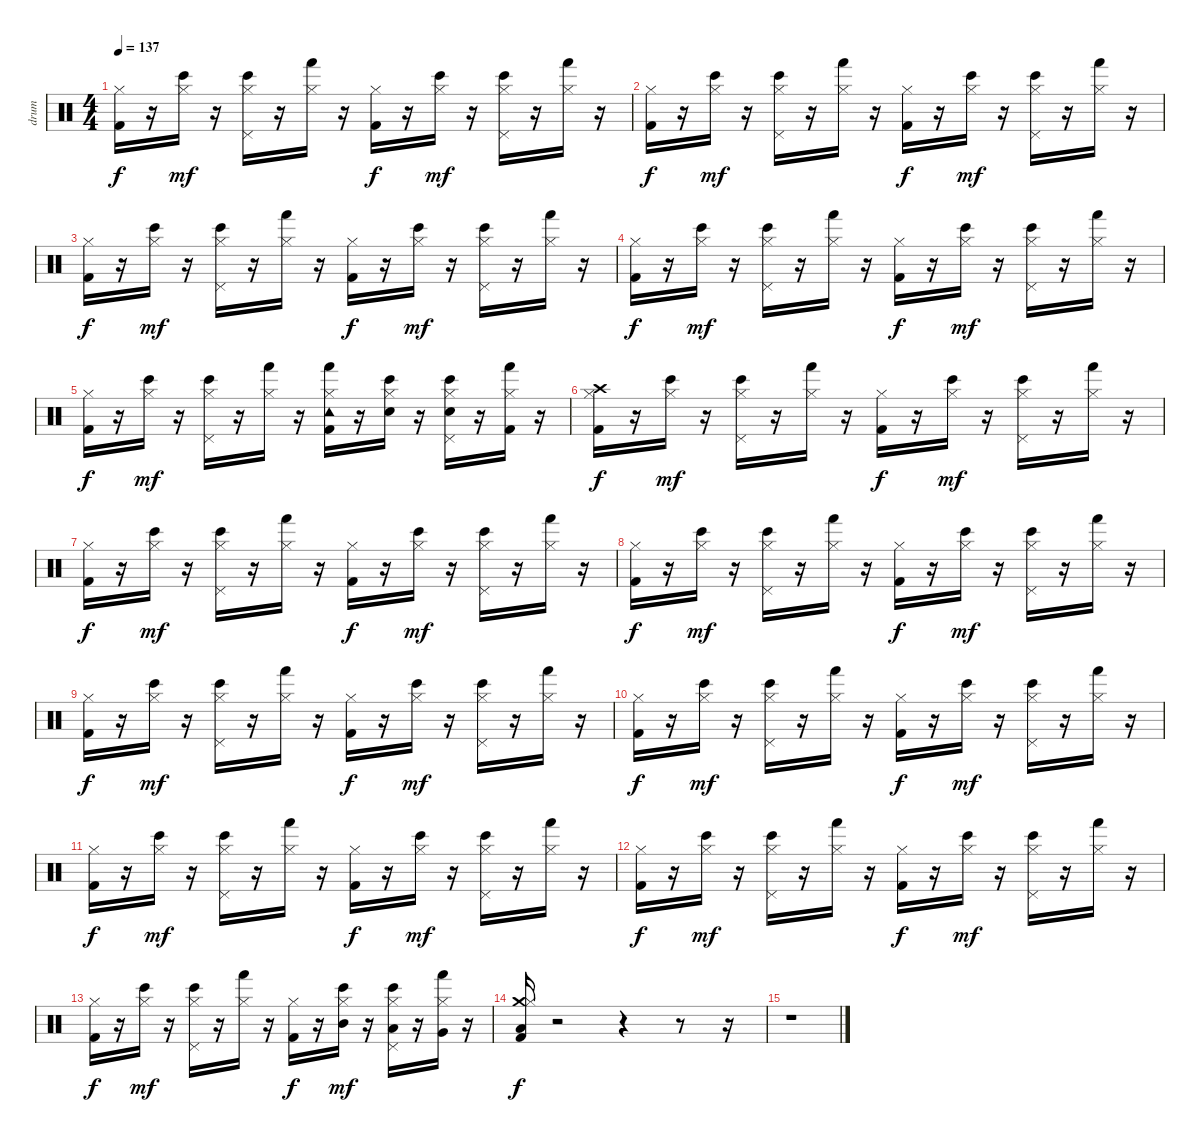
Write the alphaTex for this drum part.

\track ("drum" "drum") {instrument percussion}
\staff {score}
\articulation defaults
\ts (4 4)
\tempo 137
\clef neutral
\ks c
("Kick (hit) 2" "Hi-Hat (closed)").16{dy f} r.16 ("Hi-Hat (closed)" "Bongo High (hit)").16{dy mf} r.16 ("Hi-Hat (closed)" "Bongo High (hit)" "Pedal Hi-Hat (hit)").16 r.16 ("Hi-Hat (closed)" "Hand (hit)").16 r.16 ("Hi-Hat (closed)" "Kick (hit) 2").16{dy f} r.16 ("Bongo High (hit)" "Hi-Hat (closed)").16{dy mf} r.16 ("Bongo High (hit)" "Hi-Hat (closed)" "Pedal Hi-Hat (hit)").16 r.16 ("Hand (hit)" "Hi-Hat (closed)").16 r.16 |
("Kick (hit) 2" "Hi-Hat (closed)").16{dy f} r.16 ("Hi-Hat (closed)" "Bongo High (hit)").16{dy mf} r.16 ("Bongo High (hit)" "Hi-Hat (closed)" "Pedal Hi-Hat (hit)").16 r.16 ("Hi-Hat (closed)" "Hand (hit)").16 r.16 ("Kick (hit) 2" "Hi-Hat (closed)").16{dy f} r.16 ("Hi-Hat (closed)" "Bongo High (hit)").16{dy mf} r.16 ("Bongo High (hit)" "Hi-Hat (closed)" "Pedal Hi-Hat (hit)").16 r.16 ("Hand (hit)" "Hi-Hat (closed)").16 r.16 |
("Hi-Hat (closed)" "Kick (hit) 2").16{dy f} r.16 ("Hi-Hat (closed)" "Bongo High (hit)").16{dy mf} r.16 ("Bongo High (hit)" "Hi-Hat (closed)" "Pedal Hi-Hat (hit)").16 r.16 ("Hand (hit)" "Hi-Hat (closed)").16 r.16 ("Hi-Hat (closed)" "Kick (hit) 2").16{dy f} r.16 ("Hi-Hat (closed)" "Bongo High (hit)").16{dy mf} r.16 ("Bongo High (hit)" "Hi-Hat (closed)" "Pedal Hi-Hat (hit)").16 r.16 ("Hand (hit)" "Hi-Hat (closed)").16 r.16 |
("Kick (hit) 2" "Hi-Hat (closed)").16{dy f} r.16 ("Hi-Hat (closed)" "Bongo High (hit)").16{dy mf} r.16 ("Bongo High (hit)" "Hi-Hat (closed)" "Pedal Hi-Hat (hit)").16 r.16 ("Hand (hit)" "Hi-Hat (closed)").16 r.16 ("Hi-Hat (closed)" "Kick (hit) 2").16{dy f} r.16 ("Hi-Hat (closed)" "Bongo High (hit)").16{dy mf} r.16 ("Bongo High (hit)" "Hi-Hat (closed)" "Pedal Hi-Hat (hit)").16 r.16 ("Hand (hit)" "Hi-Hat (closed)").16 r.16 |
("Kick (hit) 2" "Hi-Hat (closed)").16{dy f} r.16 ("Hi-Hat (closed)" "Bongo High (hit)").16{dy mf} r.16 ("Bongo High (hit)" "Hi-Hat (closed)" "Pedal Hi-Hat (hit)").16 r.16 ("Hi-Hat (closed)" "Hand (hit)").16 r.16 ("Hi-Hat (closed)" "Kick (hit) 2" "Hand (hit)" "Tambourine (hit)").16 r.16 ("Hi-Hat (closed)" "Snare (hit) 2" "Bongo High (hit)").16 r.16 ("Hi-Hat (closed)" "Snare (hit) 2" "Bongo High (hit)" "Pedal Hi-Hat (hit)").16 r.16 ("Hand (hit)" "Hi-Hat (closed)" "Kick (hit) 2").16 r.16 |
("Kick (hit) 2" "Hi-Hat (closed)" "Crash high (hit)").16{dy f} r.16 ("Bongo High (hit)" "Hi-Hat (closed)").16{dy mf} r.16 ("Bongo High (hit)" "Hi-Hat (closed)" "Pedal Hi-Hat (hit)").16 r.16 ("Hand (hit)" "Hi-Hat (closed)").16 r.16 ("Hi-Hat (closed)" "Kick (hit) 2").16{dy f} r.16 ("Hi-Hat (closed)" "Bongo High (hit)").16{dy mf} r.16 ("Hi-Hat (closed)" "Bongo High (hit)" "Pedal Hi-Hat (hit)").16 r.16 ("Hand (hit)" "Hi-Hat (closed)").16 r.16 |
("Hi-Hat (closed)" "Kick (hit) 2").16{dy f} r.16 ("Bongo High (hit)" "Hi-Hat (closed)").16{dy mf} r.16 ("Hi-Hat (closed)" "Bongo High (hit)" "Pedal Hi-Hat (hit)").16 r.16 ("Hi-Hat (closed)" "Hand (hit)").16 r.16 ("Kick (hit) 2" "Hi-Hat (closed)").16{dy f} r.16 ("Hi-Hat (closed)" "Bongo High (hit)").16{dy mf} r.16 ("Hi-Hat (closed)" "Bongo High (hit)" "Pedal Hi-Hat (hit)").16 r.16 ("Hi-Hat (closed)" "Hand (hit)").16 r.16 |
("Hi-Hat (closed)" "Kick (hit) 2").16{dy f} r.16 ("Hi-Hat (closed)" "Bongo High (hit)").16{dy mf} r.16 ("Bongo High (hit)" "Hi-Hat (closed)" "Pedal Hi-Hat (hit)").16 r.16 ("Hand (hit)" "Hi-Hat (closed)").16 r.16 ("Hi-Hat (closed)" "Kick (hit) 2").16{dy f} r.16 ("Bongo High (hit)" "Hi-Hat (closed)").16{dy mf} r.16 ("Bongo High (hit)" "Hi-Hat (closed)" "Pedal Hi-Hat (hit)").16 r.16 ("Hi-Hat (closed)" "Hand (hit)").16 r.16 |
("Kick (hit) 2" "Hi-Hat (closed)").16{dy f} r.16 ("Hi-Hat (closed)" "Bongo High (hit)").16{dy mf} r.16 ("Hi-Hat (closed)" "Bongo High (hit)" "Pedal Hi-Hat (hit)").16 r.16 ("Hi-Hat (closed)" "Hand (hit)").16 r.16 ("Kick (hit) 2" "Hi-Hat (closed)").16{dy f} r.16 ("Hi-Hat (closed)" "Bongo High (hit)").16{dy mf} r.16 ("Hi-Hat (closed)" "Bongo High (hit)" "Pedal Hi-Hat (hit)").16 r.16 ("Hand (hit)" "Hi-Hat (closed)").16 r.16 |
("Hi-Hat (closed)" "Kick (hit) 2").16{dy f} r.16 ("Bongo High (hit)" "Hi-Hat (closed)").16{dy mf} r.16 ("Bongo High (hit)" "Hi-Hat (closed)" "Pedal Hi-Hat (hit)").16 r.16 ("Hand (hit)" "Hi-Hat (closed)").16 r.16 ("Hi-Hat (closed)" "Kick (hit) 2").16{dy f} r.16 ("Bongo High (hit)" "Hi-Hat (closed)").16{dy mf} r.16 ("Hi-Hat (closed)" "Bongo High (hit)" "Pedal Hi-Hat (hit)").16 r.16 ("Hand (hit)" "Hi-Hat (closed)").16 r.16 |
("Hi-Hat (closed)" "Kick (hit) 2").16{dy f} r.16 ("Hi-Hat (closed)" "Bongo High (hit)").16{dy mf} r.16 ("Hi-Hat (closed)" "Bongo High (hit)" "Pedal Hi-Hat (hit)").16 r.16 ("Hand (hit)" "Hi-Hat (closed)").16 r.16 ("Hi-Hat (closed)" "Kick (hit) 2").16{dy f} r.16 ("Bongo High (hit)" "Hi-Hat (closed)").16{dy mf} r.16 ("Hi-Hat (closed)" "Bongo High (hit)" "Pedal Hi-Hat (hit)").16 r.16 ("Hi-Hat (closed)" "Hand (hit)").16 r.16 |
("Hi-Hat (closed)" "Kick (hit) 2").16{dy f} r.16 ("Hi-Hat (closed)" "Bongo High (hit)").16{dy mf} r.16 ("Hi-Hat (closed)" "Bongo High (hit)" "Pedal Hi-Hat (hit)").16 r.16 ("Hi-Hat (closed)" "Hand (hit)").16 r.16 ("Kick (hit) 2" "Hi-Hat (closed)").16{dy f} r.16 ("Bongo High (hit)" "Hi-Hat (closed)").16{dy mf} r.16 ("Hi-Hat (closed)" "Bongo High (hit)" "Pedal Hi-Hat (hit)").16 r.16 ("Hi-Hat (closed)" "Hand (hit)").16 r.16 |
("Kick (hit) 2" "Hi-Hat (closed)").16{dy f} r.16 ("Bongo High (hit)" "Hi-Hat (closed)").16{dy mf} r.16 ("Hi-Hat (closed)" "Bongo High (hit)" "Pedal Hi-Hat (hit)").16 r.16 ("Hand (hit)" "Hi-Hat (closed)").16 r.16 ("Kick (hit) 2" "Hi-Hat (closed)").16{dy f} r.16 ("Bongo High (hit)" "Hi-Hat (closed)" "Mid Tom (hit)").16{dy mf} r.16 ("Low Tom (hit)" "Hi-Hat (closed)" "Bongo High (hit)" "Pedal Hi-Hat (hit)").16 r.16 ("Hi-Hat (closed)" "Hand (hit)" "Very Low Tom (hit)").16 r.16 |
("Crash medium (hit)" "Kick (hit) 2" "Hi-Hat (closed)" "Low Floor Tom (hit)").16{dy f} r.2 r.4 r.8 r.16 |
r.1
